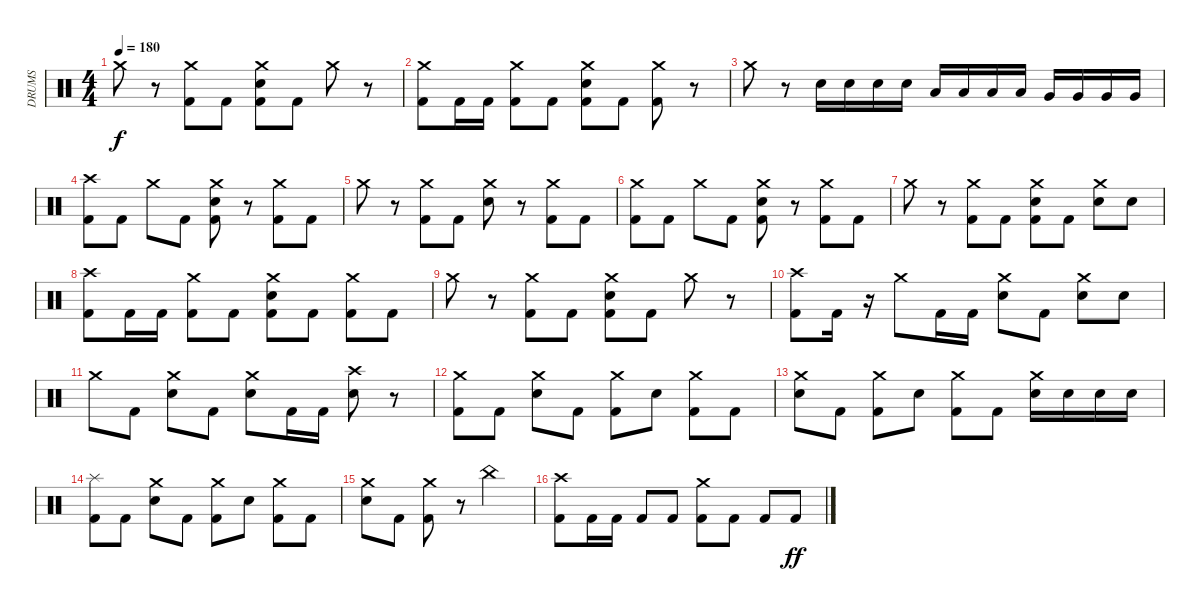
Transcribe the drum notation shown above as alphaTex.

\track ("DRUMS" "DRUMS") {instrument percussion}
\staff {score}
\articulation defaults
\ts (4 4)
\tempo 180
\clef neutral
\ks c "Crash medium (hit)".8{dy f}
r.8 ("Crash medium (hit)" "Kick (hit) 2").8 "Kick (hit) 2".8 ("Crash medium (hit)" "Electric Snare (hit)" "Kick (hit) 2").8 "Kick (hit) 2".8 "Crash medium (hit)".8 r.8 |
("Crash medium (hit)" "Kick (hit) 2").8 "Kick (hit) 2".16 "Kick (hit) 2".16 ("Crash medium (hit)" "Kick (hit) 2").8 "Kick (hit) 2".8 ("Crash medium (hit)" "Electric Snare (hit)" "Kick (hit) 2").8 "Kick (hit) 2".8 ("Crash medium (hit)" "Kick (hit) 2").8 r.8 |
"Crash medium (hit)".8 r.8 "Electric Snare (hit)".16 "Electric Snare (hit)".16 "Electric Snare (hit)".16 "Electric Snare (hit)".16 "Low Tom (hit)".16 "Low Tom (hit)".16 "Low Tom (hit)".16 "Low Tom (hit)".16 "Very Low Tom (hit)".16 "Very Low Tom (hit)".16 "Very Low Tom (hit)".16 "Very Low Tom (hit)".16 |
("Crash high (hit)" "Kick (hit) 2").8 "Kick (hit) 2".8 "Crash medium (hit)".8 "Kick (hit) 2".8 ("Crash medium (hit)" "Electric Snare (hit)" "Kick (hit) 2").8 r.8 ("Crash medium (hit)" "Kick (hit) 2").8 "Kick (hit) 2".8 |
"Crash medium (hit)".8 r.8 ("Crash medium (hit)" "Kick (hit) 2").8 "Kick (hit) 2".8 ("Crash medium (hit)" "Electric Snare (hit)").8 r.8 ("Crash medium (hit)" "Kick (hit) 2").8 "Kick (hit) 2".8 |
("Crash medium (hit)" "Kick (hit) 2").8 "Kick (hit) 2".8 "Crash medium (hit)".8 "Kick (hit) 2".8 ("Crash medium (hit)" "Electric Snare (hit)" "Kick (hit) 2").8 r.8 ("Crash medium (hit)" "Kick (hit) 2").8 "Kick (hit) 2".8 |
"Crash medium (hit)".8 r.8 ("Crash medium (hit)" "Kick (hit) 2").8 "Kick (hit) 2".8 ("Crash medium (hit)" "Electric Snare (hit)" "Kick (hit) 2").8 "Kick (hit) 2".8 ("Crash medium (hit)" "Electric Snare (hit)").8 "Electric Snare (hit)".8 |
("Crash high (hit)" "Kick (hit) 2").8 "Kick (hit) 2".16 "Kick (hit) 2".16 ("Crash medium (hit)" "Kick (hit) 2").8 "Kick (hit) 2".8 ("Crash medium (hit)" "Electric Snare (hit)" "Kick (hit) 2").8 "Kick (hit) 2".8 ("Crash medium (hit)" "Kick (hit) 2").8 "Kick (hit) 2".8 |
"Crash medium (hit)".8 r.8 ("Crash medium (hit)" "Kick (hit) 2").8 "Kick (hit) 2".8 ("Crash medium (hit)" "Electric Snare (hit)" "Kick (hit) 2").8 "Kick (hit) 2".8 "Crash medium (hit)".8 r.8 |
("Crash high (hit)" "Kick (hit) 2").8 "Kick (hit) 2".16 r.16 "Crash medium (hit)".8 "Kick (hit) 2".16 "Kick (hit) 2".16 ("Crash medium (hit)" "Electric Snare (hit)").8 "Kick (hit) 2".8 ("Crash medium (hit)" "Electric Snare (hit)").8 "Electric Snare (hit)".8 |
"Crash medium (hit)".8 "Kick (hit) 2".8 ("Crash medium (hit)" "Electric Snare (hit)").8 "Kick (hit) 2".8 ("Crash medium (hit)" "Electric Snare (hit)").8 "Kick (hit) 2".16 "Kick (hit) 2".16 ("Crash high (hit)" "Electric Snare (hit)").8 r.8 |
("Crash medium (hit)" "Kick (hit) 2").8 "Kick (hit) 2".8 ("Crash medium (hit)" "Electric Snare (hit)").8 "Kick (hit) 2".8 ("Crash medium (hit)" "Kick (hit) 2").8 "Electric Snare (hit)".8 ("Crash medium (hit)" "Kick (hit) 2").8 "Kick (hit) 2".8 |
("Crash medium (hit)" "Electric Snare (hit)").8 "Kick (hit) 2".8 ("Crash medium (hit)" "Kick (hit) 2").8 "Electric Snare (hit)".8 ("Crash medium (hit)" "Kick (hit) 2").8 "Kick (hit) 2".8 ("Crash medium (hit)" "Electric Snare (hit)").16 "Electric Snare (hit)".16 "Electric Snare (hit)".16 "Electric Snare (hit)".16 |
("Splash (hit)" "Kick (hit) 2").8 "Kick (hit) 2".8 ("Crash medium (hit)" "Electric Snare (hit)").8 "Kick (hit) 2".8 ("Crash medium (hit)" "Kick (hit) 2").8 "Electric Snare (hit)".8 ("Crash medium (hit)" "Kick (hit) 2").8 "Kick (hit) 2".8 |
("Crash medium (hit)" "Electric Snare (hit)").8 "Kick (hit) 2".8 ("Crash medium (hit)" "Kick (hit) 2").8 r.8 "China (hit)".2 |
("Crash high (hit)" "Kick (hit) 2").8 "Kick (hit) 2".16 "Kick (hit) 2".16 "Kick (hit) 2".8 "Kick (hit) 2".8 ("Crash medium (hit)" "Kick (hit) 2").8 "Kick (hit) 2".8 "Kick (hit) 2".8 "Kick (hit) 2".8{dy ff}
